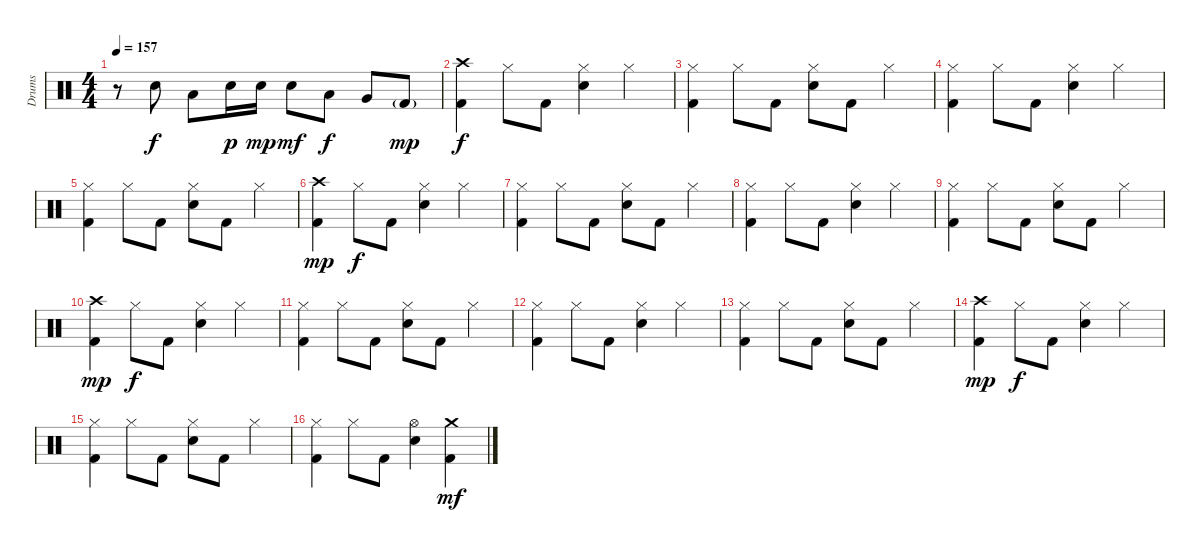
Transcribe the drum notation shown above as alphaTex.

\track ("Drums" "Drums") {instrument percussion}
\staff {score}
\articulation defaults
\ts (4 4)
\tempo 157
\clef neutral
\ks c
r.8{dy f} "Electric Snare (hit)".8 "Low Tom (hit)".8 "Electric Snare (hit)".16{dy p} "Electric Snare (hit)".16{dy mp} "Electric Snare (hit)".8{dy mf} "Low Tom (hit)".8{dy f} "Very Low Tom (hit)".8 "Kick (hit) 2"{g}.8{dy mp} |
("Crash high (hit)" "Kick (hit) 2").4{dy f volume 12} "Hi-Hat (closed)".8 "Kick (hit) 2".8 ("Hi-Hat (closed)" "Electric Snare (hit)").4 "Hi-Hat (closed)".4 |
("Hi-Hat (closed)" "Kick (hit) 2").4 "Hi-Hat (closed)".8 "Kick (hit) 2".8 ("Hi-Hat (closed)" "Electric Snare (hit)").8 "Kick (hit) 2".8 "Hi-Hat (closed)".4 |
("Hi-Hat (closed)" "Kick (hit) 2").4 "Hi-Hat (closed)".8 "Kick (hit) 2".8 ("Hi-Hat (closed)" "Electric Snare (hit)").4 "Hi-Hat (closed)".4 |
("Hi-Hat (closed)" "Kick (hit) 2").4 "Hi-Hat (closed)".8 "Kick (hit) 2".8 ("Hi-Hat (closed)" "Electric Snare (hit)").8 "Kick (hit) 2".8 "Hi-Hat (closed)".4 |
("Crash high (hit)" "Kick (hit) 2").4{dy mp} "Hi-Hat (closed)".8{dy f} "Kick (hit) 2".8 ("Hi-Hat (closed)" "Electric Snare (hit)").4 "Hi-Hat (closed)".4 |
("Hi-Hat (closed)" "Kick (hit) 2").4 "Hi-Hat (closed)".8 "Kick (hit) 2".8 ("Hi-Hat (closed)" "Electric Snare (hit)").8 "Kick (hit) 2".8 "Hi-Hat (closed)".4 |
("Hi-Hat (closed)" "Kick (hit) 2").4 "Hi-Hat (closed)".8 "Kick (hit) 2".8 ("Hi-Hat (closed)" "Electric Snare (hit)").4 "Hi-Hat (closed)".4 |
("Hi-Hat (closed)" "Kick (hit) 2").4 "Hi-Hat (closed)".8 "Kick (hit) 2".8 ("Hi-Hat (closed)" "Electric Snare (hit)").8 "Kick (hit) 2".8 "Hi-Hat (closed)".4 |
("Crash high (hit)" "Kick (hit) 2").4{dy mp} "Hi-Hat (closed)".8{dy f} "Kick (hit) 2".8 ("Hi-Hat (closed)" "Electric Snare (hit)").4 "Hi-Hat (closed)".4 |
("Hi-Hat (closed)" "Kick (hit) 2").4 "Hi-Hat (closed)".8 "Kick (hit) 2".8 ("Hi-Hat (closed)" "Electric Snare (hit)").8 "Kick (hit) 2".8 "Hi-Hat (closed)".4 |
("Hi-Hat (closed)" "Kick (hit) 2").4 "Hi-Hat (closed)".8 "Kick (hit) 2".8 ("Hi-Hat (closed)" "Electric Snare (hit)").4 "Hi-Hat (closed)".4 |
("Hi-Hat (closed)" "Kick (hit) 2").4 "Hi-Hat (closed)".8 "Kick (hit) 2".8 ("Hi-Hat (closed)" "Electric Snare (hit)").8 "Kick (hit) 2".8 "Hi-Hat (closed)".4 |
("Crash high (hit)" "Kick (hit) 2").4{dy mp} "Hi-Hat (closed)".8{dy f} "Kick (hit) 2".8 ("Hi-Hat (closed)" "Electric Snare (hit)").4 "Hi-Hat (closed)".4 |
("Hi-Hat (closed)" "Kick (hit) 2").4 "Hi-Hat (closed)".8 "Kick (hit) 2".8 ("Hi-Hat (closed)" "Electric Snare (hit)").8 "Kick (hit) 2".8 "Hi-Hat (closed)".4 |
("Hi-Hat (closed)" "Kick (hit) 2").4 "Hi-Hat (closed)".8 "Kick (hit) 2".8 ("Hi-Hat (open)" "Electric Snare (hit)").4 ("Crash medium (hit)" "Kick (hit) 2").4{dy mf}
